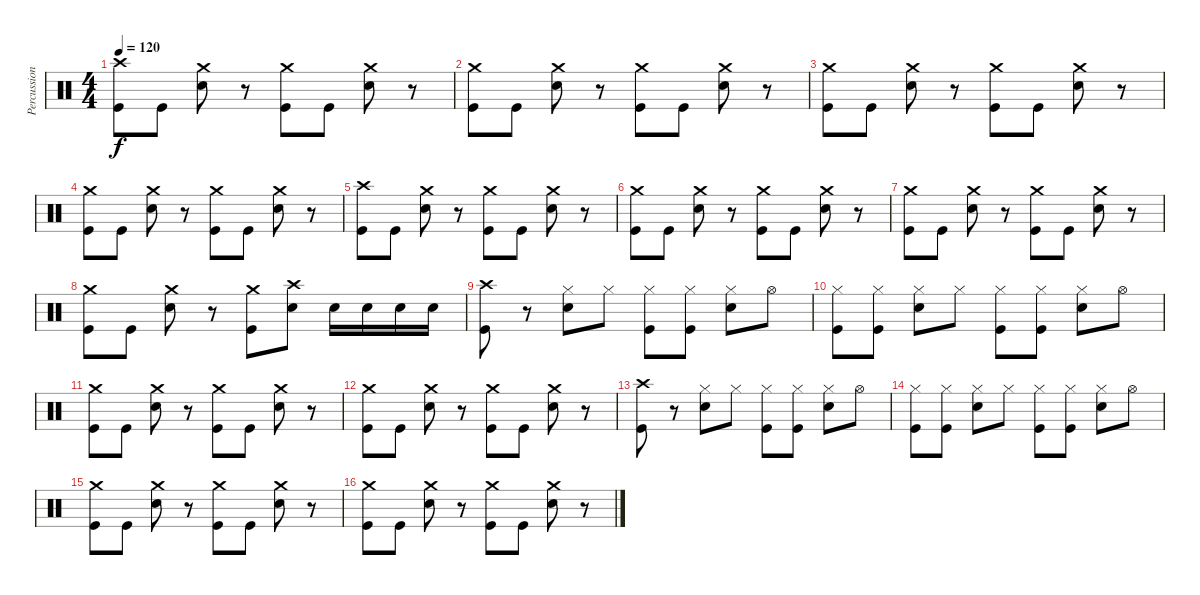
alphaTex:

\track ("Percussion" "Percussion") {instrument percussion}
\staff {score}
\articulation defaults
\ts (4 4)
\tempo 120
\clef neutral
\ks c
("Crash high (hit)" "Kick (hit)").8{dy f} "Kick (hit)".8 ("Crash medium (hit)" "Electric Snare (hit)").8 r.8 ("Crash medium (hit)" "Kick (hit)").8 "Kick (hit)".8 ("Crash medium (hit)" "Electric Snare (hit)").8 r.8 |
("Crash medium (hit)" "Kick (hit)").8 "Kick (hit)".8 ("Crash medium (hit)" "Electric Snare (hit)").8 r.8 ("Crash medium (hit)" "Kick (hit)").8 "Kick (hit)".8 ("Crash medium (hit)" "Electric Snare (hit)").8 r.8 |
("Crash medium (hit)" "Kick (hit)").8 "Kick (hit)".8 ("Crash medium (hit)" "Electric Snare (hit)").8 r.8 ("Crash medium (hit)" "Kick (hit)").8 "Kick (hit)".8 ("Crash medium (hit)" "Electric Snare (hit)").8 r.8 |
("Crash medium (hit)" "Kick (hit)").8 "Kick (hit)".8 ("Crash medium (hit)" "Electric Snare (hit)").8 r.8 ("Crash medium (hit)" "Kick (hit)").8 "Kick (hit)".8 ("Crash medium (hit)" "Electric Snare (hit)").8 r.8 |
("Crash high (hit)" "Kick (hit)").8 "Kick (hit)".8 ("Crash medium (hit)" "Electric Snare (hit)").8 r.8 ("Crash medium (hit)" "Kick (hit)").8 "Kick (hit)".8 ("Crash medium (hit)" "Electric Snare (hit)").8 r.8 |
("Crash medium (hit)" "Kick (hit)").8 "Kick (hit)".8 ("Crash medium (hit)" "Electric Snare (hit)").8 r.8 ("Crash medium (hit)" "Kick (hit)").8 "Kick (hit)".8 ("Crash medium (hit)" "Electric Snare (hit)").8 r.8 |
("Crash medium (hit)" "Kick (hit)").8 "Kick (hit)".8 ("Crash medium (hit)" "Electric Snare (hit)").8 r.8 ("Crash medium (hit)" "Kick (hit)").8 "Kick (hit)".8 ("Crash medium (hit)" "Electric Snare (hit)").8 r.8 |
("Crash medium (hit)" "Kick (hit)").8 "Kick (hit)".8 ("Crash medium (hit)" "Electric Snare (hit)").8 r.8 ("Crash medium (hit)" "Kick (hit)").8 ("Crash high (hit)" "Electric Snare (hit)").8 "Electric Snare (hit)".16 "Electric Snare (hit)".16 "Electric Snare (hit)".16 "Electric Snare (hit)".16 |
("Crash high (hit)" "Kick (hit)").8 r.8 ("Hi-Hat (closed)" "Electric Snare (hit)").8 "Hi-Hat (closed)".8 ("Hi-Hat (closed)" "Kick (hit)").8 ("Hi-Hat (closed)" "Kick (hit)").8 ("Hi-Hat (closed)" "Electric Snare (hit)").8 "Hi-Hat (open)".8 |
("Hi-Hat (closed)" "Kick (hit)").8 ("Hi-Hat (closed)" "Kick (hit)").8 ("Hi-Hat (closed)" "Electric Snare (hit)").8 "Hi-Hat (closed)".8 ("Hi-Hat (closed)" "Kick (hit)").8 ("Hi-Hat (closed)" "Kick (hit)").8 ("Hi-Hat (closed)" "Electric Snare (hit)").8 "Hi-Hat (open)".8 |
("Crash medium (hit)" "Kick (hit)").8 "Kick (hit)".8 ("Crash medium (hit)" "Electric Snare (hit)").8 r.8 ("Crash medium (hit)" "Kick (hit)").8 "Kick (hit)".8 ("Crash medium (hit)" "Electric Snare (hit)").8 r.8 |
("Crash medium (hit)" "Kick (hit)").8 "Kick (hit)".8 ("Crash medium (hit)" "Electric Snare (hit)").8 r.8 ("Crash medium (hit)" "Kick (hit)").8 "Kick (hit)".8 ("Crash medium (hit)" "Electric Snare (hit)").8 r.8 |
("Crash high (hit)" "Kick (hit)").8 r.8 ("Hi-Hat (closed)" "Electric Snare (hit)").8 "Hi-Hat (closed)".8 ("Hi-Hat (closed)" "Kick (hit)").8 ("Hi-Hat (closed)" "Kick (hit)").8 ("Hi-Hat (closed)" "Electric Snare (hit)").8 "Hi-Hat (open)".8 |
("Hi-Hat (closed)" "Kick (hit)").8 ("Hi-Hat (closed)" "Kick (hit)").8 ("Hi-Hat (closed)" "Electric Snare (hit)").8 "Hi-Hat (closed)".8 ("Hi-Hat (closed)" "Kick (hit)").8 ("Hi-Hat (closed)" "Kick (hit)").8 ("Hi-Hat (closed)" "Electric Snare (hit)").8 "Hi-Hat (open)".8 |
("Crash medium (hit)" "Kick (hit)").8 "Kick (hit)".8 ("Crash medium (hit)" "Electric Snare (hit)").8 r.8 ("Crash medium (hit)" "Kick (hit)").8 "Kick (hit)".8 ("Crash medium (hit)" "Electric Snare (hit)").8 r.8 |
("Crash medium (hit)" "Kick (hit)").8 "Kick (hit)".8 ("Crash medium (hit)" "Electric Snare (hit)").8 r.8 ("Crash medium (hit)" "Kick (hit)").8 "Kick (hit)".8 ("Crash medium (hit)" "Electric Snare (hit)").8 r.8
